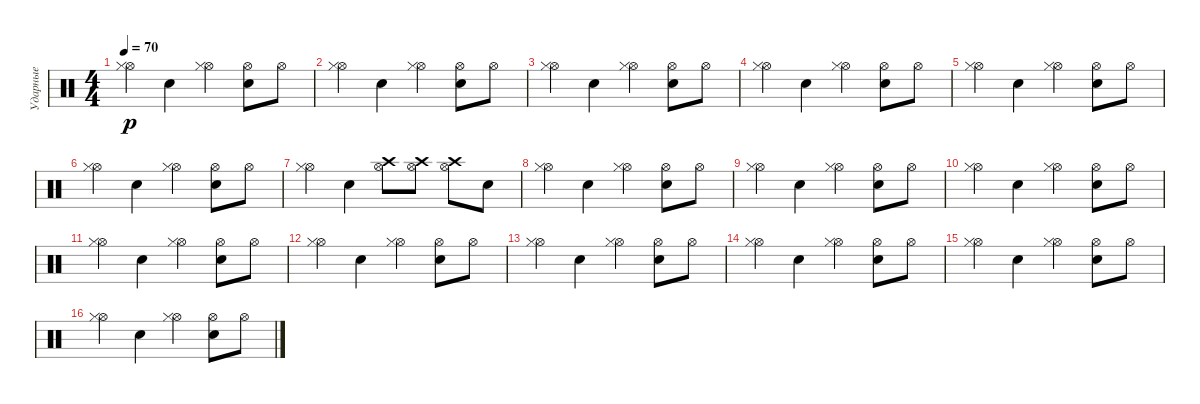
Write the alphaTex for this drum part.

\track ("Ударные" "Ударные") {instrument percussion}
\staff {score}
\articulation defaults
\ts (4 4)
\tempo 70
\clef neutral
\ks c
("Hi-Hat (open)" "Hi-Hat (closed)").4{dy p} "Electric Snare (hit)".4 ("Hi-Hat (open)" "Hi-Hat (closed)").4 ("Hi-Hat (open)" "Electric Snare (hit)").8 "Hi-Hat (open)".8 |
("Hi-Hat (open)" "Hi-Hat (closed)").4 "Electric Snare (hit)".4 ("Hi-Hat (open)" "Hi-Hat (closed)").4 ("Hi-Hat (open)" "Electric Snare (hit)").8 "Hi-Hat (open)".8 |
("Hi-Hat (open)" "Hi-Hat (closed)").4 "Electric Snare (hit)".4 ("Hi-Hat (open)" "Hi-Hat (closed)").4 ("Hi-Hat (open)" "Electric Snare (hit)").8 "Hi-Hat (open)".8 |
("Hi-Hat (open)" "Hi-Hat (closed)").4 "Electric Snare (hit)".4 ("Hi-Hat (open)" "Hi-Hat (closed)").4 ("Hi-Hat (open)" "Electric Snare (hit)").8 "Hi-Hat (open)".8 |
("Hi-Hat (open)" "Hi-Hat (closed)").4 "Electric Snare (hit)".4 ("Hi-Hat (open)" "Hi-Hat (closed)").4 ("Hi-Hat (open)" "Electric Snare (hit)").8 "Hi-Hat (open)".8 |
("Hi-Hat (open)" "Hi-Hat (closed)").4 "Electric Snare (hit)".4 ("Hi-Hat (open)" "Hi-Hat (closed)").4 ("Hi-Hat (open)" "Electric Snare (hit)").8 "Hi-Hat (open)".8 |
("Hi-Hat (open)" "Hi-Hat (closed)").4 "Electric Snare (hit)".4 ("Hi-Hat (open)" "Crash high (hit)").8 ("Hi-Hat (open)" "Crash high (hit)").8 ("Hi-Hat (open)" "Crash high (hit)").8 "Electric Snare (hit)".8 |
("Hi-Hat (open)" "Hi-Hat (closed)").4 "Electric Snare (hit)".4 ("Hi-Hat (open)" "Hi-Hat (closed)").4 ("Hi-Hat (open)" "Electric Snare (hit)").8 "Hi-Hat (open)".8 |
("Hi-Hat (open)" "Hi-Hat (closed)").4 "Electric Snare (hit)".4 ("Hi-Hat (open)" "Hi-Hat (closed)").4 ("Hi-Hat (open)" "Electric Snare (hit)").8 "Hi-Hat (open)".8 |
("Hi-Hat (open)" "Hi-Hat (closed)").4 "Electric Snare (hit)".4 ("Hi-Hat (open)" "Hi-Hat (closed)").4 ("Hi-Hat (open)" "Electric Snare (hit)").8 "Hi-Hat (open)".8 |
("Hi-Hat (open)" "Hi-Hat (closed)").4 "Electric Snare (hit)".4 ("Hi-Hat (open)" "Hi-Hat (closed)").4 ("Hi-Hat (open)" "Electric Snare (hit)").8 "Hi-Hat (open)".8 |
("Hi-Hat (open)" "Hi-Hat (closed)").4 "Electric Snare (hit)".4 ("Hi-Hat (open)" "Hi-Hat (closed)").4 ("Hi-Hat (open)" "Electric Snare (hit)").8 "Hi-Hat (open)".8 |
("Hi-Hat (open)" "Hi-Hat (closed)").4 "Electric Snare (hit)".4 ("Hi-Hat (open)" "Hi-Hat (closed)").4 ("Hi-Hat (open)" "Electric Snare (hit)").8 "Hi-Hat (open)".8 |
("Hi-Hat (open)" "Hi-Hat (closed)").4 "Electric Snare (hit)".4 ("Hi-Hat (open)" "Hi-Hat (closed)").4 ("Hi-Hat (open)" "Electric Snare (hit)").8 "Hi-Hat (open)".8 |
("Hi-Hat (open)" "Hi-Hat (closed)").4 "Electric Snare (hit)".4 ("Hi-Hat (open)" "Hi-Hat (closed)").4 ("Hi-Hat (open)" "Electric Snare (hit)").8 "Hi-Hat (open)".8 |
("Hi-Hat (open)" "Hi-Hat (closed)").4 "Electric Snare (hit)".4 ("Hi-Hat (open)" "Hi-Hat (closed)").4 ("Hi-Hat (open)" "Electric Snare (hit)").8 "Hi-Hat (open)".8
